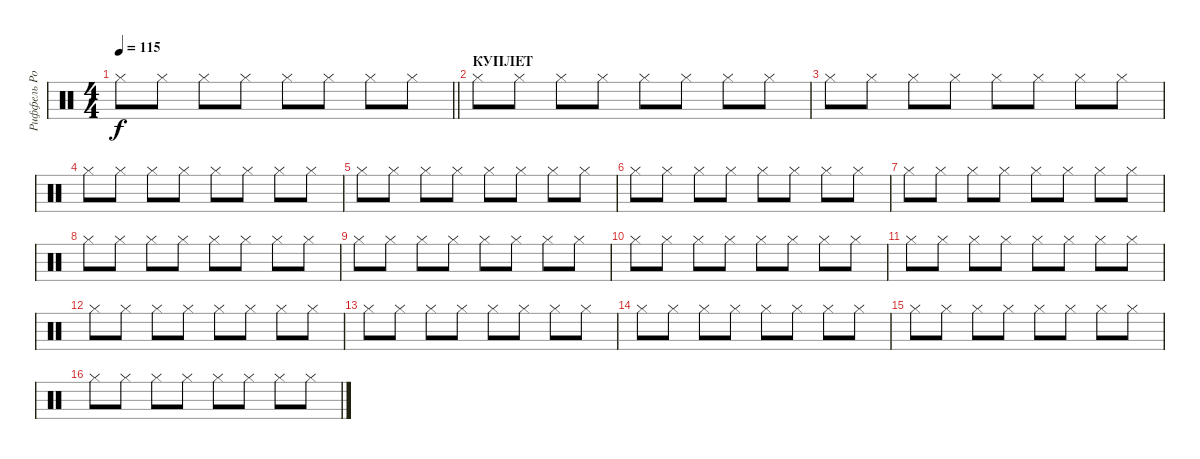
\track ("Риффель Роман (хэты)" "Риффель Ро") {instrument percussion}
\staff {score}
\articulation defaults
\ts (4 4)
\tempo 115
\clef neutral
\barLineRight lightlight
\ks c "Hi-Hat (closed)".8{dy f} "Hi-Hat (closed)".8 "Hi-Hat (closed)".8 "Hi-Hat (closed)".8 "Hi-Hat (closed)".8 "Hi-Hat (closed)".8 "Hi-Hat (closed)".8 "Hi-Hat (closed)".8
|
\section ("" "КУПЛЕТ")
"Hi-Hat (closed)".8 "Hi-Hat (closed)".8 "Hi-Hat (closed)".8 "Hi-Hat (closed)".8 "Hi-Hat (closed)".8 "Hi-Hat (closed)".8 "Hi-Hat (closed)".8 "Hi-Hat (closed)".8 |
"Hi-Hat (closed)".8 "Hi-Hat (closed)".8 "Hi-Hat (closed)".8 "Hi-Hat (closed)".8 "Hi-Hat (closed)".8 "Hi-Hat (closed)".8 "Hi-Hat (closed)".8 "Hi-Hat (closed)".8 |
"Hi-Hat (closed)".8 "Hi-Hat (closed)".8 "Hi-Hat (closed)".8 "Hi-Hat (closed)".8 "Hi-Hat (closed)".8 "Hi-Hat (closed)".8 "Hi-Hat (closed)".8 "Hi-Hat (closed)".8 |
"Hi-Hat (closed)".8 "Hi-Hat (closed)".8 "Hi-Hat (closed)".8 "Hi-Hat (closed)".8 "Hi-Hat (closed)".8 "Hi-Hat (closed)".8 "Hi-Hat (closed)".8 "Hi-Hat (closed)".8 |
"Hi-Hat (closed)".8 "Hi-Hat (closed)".8 "Hi-Hat (closed)".8 "Hi-Hat (closed)".8 "Hi-Hat (closed)".8 "Hi-Hat (closed)".8 "Hi-Hat (closed)".8 "Hi-Hat (closed)".8 |
"Hi-Hat (closed)".8 "Hi-Hat (closed)".8 "Hi-Hat (closed)".8 "Hi-Hat (closed)".8 "Hi-Hat (closed)".8 "Hi-Hat (closed)".8 "Hi-Hat (closed)".8 "Hi-Hat (closed)".8 |
"Hi-Hat (closed)".8 "Hi-Hat (closed)".8 "Hi-Hat (closed)".8 "Hi-Hat (closed)".8 "Hi-Hat (closed)".8 "Hi-Hat (closed)".8 "Hi-Hat (closed)".8 "Hi-Hat (closed)".8 |
"Hi-Hat (closed)".8 "Hi-Hat (closed)".8 "Hi-Hat (closed)".8 "Hi-Hat (closed)".8 "Hi-Hat (closed)".8 "Hi-Hat (closed)".8 "Hi-Hat (closed)".8 "Hi-Hat (closed)".8 |
"Hi-Hat (closed)".8 "Hi-Hat (closed)".8 "Hi-Hat (closed)".8 "Hi-Hat (closed)".8 "Hi-Hat (closed)".8 "Hi-Hat (closed)".8 "Hi-Hat (closed)".8 "Hi-Hat (closed)".8 |
"Hi-Hat (closed)".8 "Hi-Hat (closed)".8 "Hi-Hat (closed)".8 "Hi-Hat (closed)".8 "Hi-Hat (closed)".8 "Hi-Hat (closed)".8 "Hi-Hat (closed)".8 "Hi-Hat (closed)".8 |
"Hi-Hat (closed)".8 "Hi-Hat (closed)".8 "Hi-Hat (closed)".8 "Hi-Hat (closed)".8 "Hi-Hat (closed)".8 "Hi-Hat (closed)".8 "Hi-Hat (closed)".8 "Hi-Hat (closed)".8 |
"Hi-Hat (closed)".8 "Hi-Hat (closed)".8 "Hi-Hat (closed)".8 "Hi-Hat (closed)".8 "Hi-Hat (closed)".8 "Hi-Hat (closed)".8 "Hi-Hat (closed)".8 "Hi-Hat (closed)".8 |
"Hi-Hat (closed)".8 "Hi-Hat (closed)".8 "Hi-Hat (closed)".8 "Hi-Hat (closed)".8 "Hi-Hat (closed)".8 "Hi-Hat (closed)".8 "Hi-Hat (closed)".8 "Hi-Hat (closed)".8 |
"Hi-Hat (closed)".8 "Hi-Hat (closed)".8 "Hi-Hat (closed)".8 "Hi-Hat (closed)".8 "Hi-Hat (closed)".8 "Hi-Hat (closed)".8 "Hi-Hat (closed)".8 "Hi-Hat (closed)".8 |
"Hi-Hat (closed)".8 "Hi-Hat (closed)".8 "Hi-Hat (closed)".8 "Hi-Hat (closed)".8 "Hi-Hat (closed)".8 "Hi-Hat (closed)".8 "Hi-Hat (closed)".8 "Hi-Hat (closed)".8
